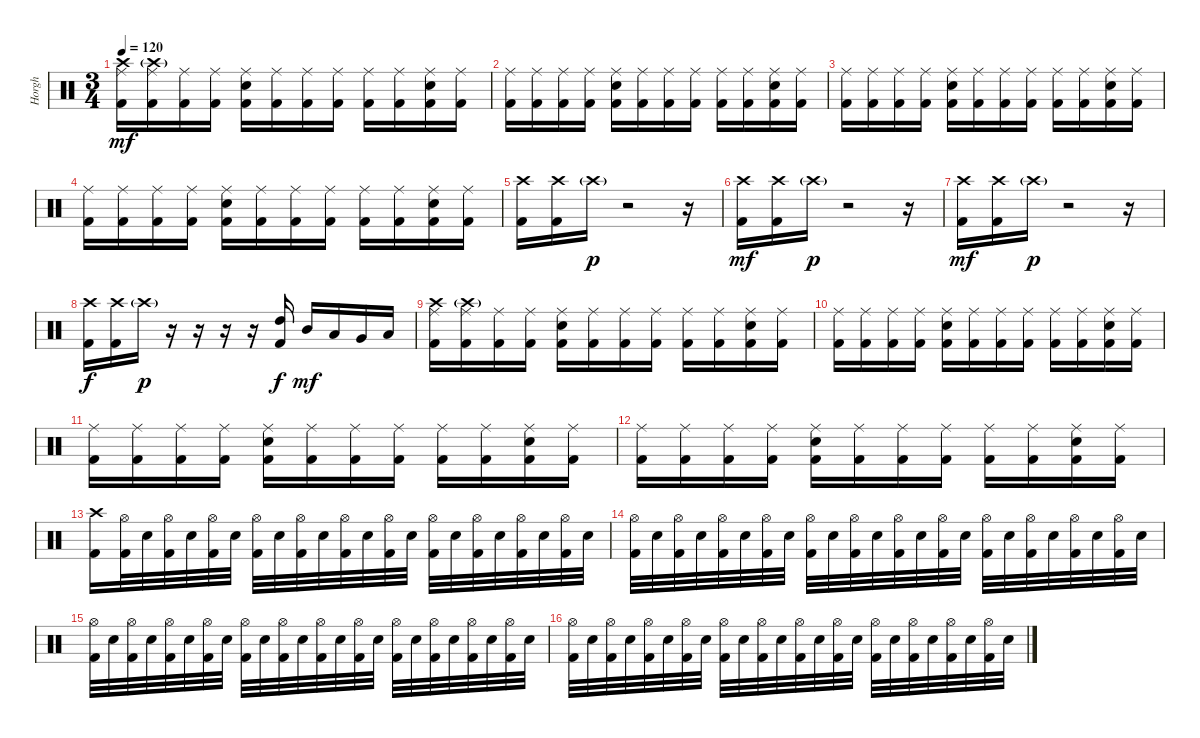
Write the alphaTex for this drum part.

\track ("Horgh" "Horgh") {instrument percussion}
\staff {score}
\articulation defaults
\ts (3 4)
\tempo 120
\clef neutral
\ks c
("Crash high (hit)" "Ride (middle)" "Kick (hit) 2").16{dy mf} ("Crash high (hit)"{g} "Ride (middle)" "Kick (hit) 2").16 ("Ride (middle)" "Kick (hit) 2").16 ("Ride (middle)" "Kick (hit) 2").16 ("Snare (hit) 2" "Ride (middle)" "Kick (hit) 2").16 ("Ride (middle)" "Kick (hit) 2").16 ("Ride (middle)" "Kick (hit) 2").16 ("Ride (middle)" "Kick (hit) 2").16 ("Ride (middle)" "Kick (hit) 2").16 ("Ride (middle)" "Kick (hit) 2").16 ("Snare (hit) 2" "Ride (middle)" "Kick (hit) 2").16 ("Ride (middle)" "Kick (hit) 2").16 |
("Ride (middle)" "Kick (hit) 2").16 ("Ride (middle)" "Kick (hit) 2").16 ("Ride (middle)" "Kick (hit) 2").16 ("Ride (middle)" "Kick (hit) 2").16 ("Snare (hit) 2" "Ride (middle)" "Kick (hit) 2").16 ("Ride (middle)" "Kick (hit) 2").16 ("Ride (middle)" "Kick (hit) 2").16 ("Ride (middle)" "Kick (hit) 2").16 ("Ride (middle)" "Kick (hit) 2").16 ("Ride (middle)" "Kick (hit) 2").16 ("Snare (hit) 2" "Ride (middle)" "Kick (hit) 2").16 ("Ride (middle)" "Kick (hit) 2").16 |
("Ride (middle)" "Kick (hit) 2").16 ("Ride (middle)" "Kick (hit) 2").16 ("Ride (middle)" "Kick (hit) 2").16 ("Ride (middle)" "Kick (hit) 2").16 ("Snare (hit) 2" "Ride (middle)" "Kick (hit) 2").16 ("Ride (middle)" "Kick (hit) 2").16 ("Ride (middle)" "Kick (hit) 2").16 ("Ride (middle)" "Kick (hit) 2").16 ("Ride (middle)" "Kick (hit) 2").16 ("Ride (middle)" "Kick (hit) 2").16 ("Snare (hit) 2" "Ride (middle)" "Kick (hit) 2").16 ("Ride (middle)" "Kick (hit) 2").16 |
("Ride (middle)" "Kick (hit) 2").16 ("Ride (middle)" "Kick (hit) 2").16 ("Ride (middle)" "Kick (hit) 2").16 ("Ride (middle)" "Kick (hit) 2").16 ("Snare (hit) 2" "Ride (middle)" "Kick (hit) 2").16 ("Ride (middle)" "Kick (hit) 2").16 ("Ride (middle)" "Kick (hit) 2").16 ("Ride (middle)" "Kick (hit) 2").16 ("Ride (middle)" "Kick (hit) 2").16 ("Ride (middle)" "Kick (hit) 2").16 ("Snare (hit) 2" "Ride (middle)" "Kick (hit) 2").16 ("Ride (middle)" "Kick (hit) 2").16 |
("Crash high (hit)" "Kick (hit) 2").16 ("Crash high (hit)" "Kick (hit) 2").16 "Crash high (hit)"{g}.16{dy p} r.2 r.16 |
("Crash high (hit)" "Kick (hit) 2").16{dy mf} ("Crash high (hit)" "Kick (hit) 2").16 "Crash high (hit)"{g}.16{dy p} r.2 r.16 |
("Crash high (hit)" "Kick (hit) 2").16{dy mf} ("Crash high (hit)" "Kick (hit) 2").16 "Crash high (hit)"{g}.16{dy p} r.2 r.16 |
("Crash high (hit)" "Kick (hit) 2").16{dy f} ("Crash high (hit)" "Kick (hit) 2").16 "Crash high (hit)"{g}.16{dy p} r.16 r.16 r.16 r.16 ("High Tom (hit)" "Kick (hit) 2").16{dy f} "Mid Tom (hit)".16{dy mf} "Low Tom (hit)".16 "Very Low Tom (hit)".16 "Low Floor Tom (hit)".16 |
("Crash high (hit)" "Ride (middle)" "Kick (hit) 2").16 ("Crash high (hit)"{g} "Ride (middle)" "Kick (hit) 2").16 ("Ride (middle)" "Kick (hit) 2").16 ("Ride (middle)" "Kick (hit) 2").16 ("Snare (hit) 2" "Ride (middle)" "Kick (hit) 2").16 ("Ride (middle)" "Kick (hit) 2").16 ("Ride (middle)" "Kick (hit) 2").16 ("Ride (middle)" "Kick (hit) 2").16 ("Ride (middle)" "Kick (hit) 2").16 ("Ride (middle)" "Kick (hit) 2").16 ("Snare (hit) 2" "Ride (middle)" "Kick (hit) 2").16 ("Ride (middle)" "Kick (hit) 2").16 |
("Ride (middle)" "Kick (hit) 2").16 ("Ride (middle)" "Kick (hit) 2").16 ("Ride (middle)" "Kick (hit) 2").16 ("Ride (middle)" "Kick (hit) 2").16 ("Snare (hit) 2" "Ride (middle)" "Kick (hit) 2").16 ("Ride (middle)" "Kick (hit) 2").16 ("Ride (middle)" "Kick (hit) 2").16 ("Ride (middle)" "Kick (hit) 2").16 ("Ride (middle)" "Kick (hit) 2").16 ("Ride (middle)" "Kick (hit) 2").16 ("Snare (hit) 2" "Ride (middle)" "Kick (hit) 2").16 ("Ride (middle)" "Kick (hit) 2").16 |
("Ride (middle)" "Kick (hit) 2").16 ("Ride (middle)" "Kick (hit) 2").16 ("Ride (middle)" "Kick (hit) 2").16 ("Ride (middle)" "Kick (hit) 2").16 ("Snare (hit) 2" "Ride (middle)" "Kick (hit) 2").16 ("Ride (middle)" "Kick (hit) 2").16 ("Ride (middle)" "Kick (hit) 2").16 ("Ride (middle)" "Kick (hit) 2").16 ("Ride (middle)" "Kick (hit) 2").16 ("Ride (middle)" "Kick (hit) 2").16 ("Snare (hit) 2" "Ride (middle)" "Kick (hit) 2").16 ("Ride (middle)" "Kick (hit) 2").16 |
("Ride (middle)" "Kick (hit) 2").16 ("Ride (middle)" "Kick (hit) 2").16 ("Ride (middle)" "Kick (hit) 2").16 ("Ride (middle)" "Kick (hit) 2").16 ("Snare (hit) 2" "Ride (middle)" "Kick (hit) 2").16 ("Ride (middle)" "Kick (hit) 2").16 ("Ride (middle)" "Kick (hit) 2").16 ("Ride (middle)" "Kick (hit) 2").16 ("Ride (middle)" "Kick (hit) 2").16 ("Ride (middle)" "Kick (hit) 2").16 ("Snare (hit) 2" "Ride (middle)" "Kick (hit) 2").16 ("Ride (middle)" "Kick (hit) 2").16 |
("Crash high (hit)" "Kick (hit) 2").16 ("Hi-Hat (open)" "Kick (hit) 2").32 "Snare (hit) 2".32 ("Hi-Hat (open)" "Kick (hit) 2").32 "Snare (hit) 2".32 ("Hi-Hat (open)" "Kick (hit) 2").32 "Snare (hit) 2".32 ("Hi-Hat (open)" "Kick (hit) 2").32 "Snare (hit) 2".32 ("Hi-Hat (open)" "Kick (hit) 2").32 "Snare (hit) 2".32 ("Hi-Hat (open)" "Kick (hit) 2").32 "Snare (hit) 2".32 ("Hi-Hat (open)" "Kick (hit) 2").32 "Snare (hit) 2".32 ("Hi-Hat (open)" "Kick (hit) 2").32 "Snare (hit) 2".32 ("Hi-Hat (open)" "Kick (hit) 2").32 "Snare (hit) 2".32 ("Hi-Hat (open)" "Kick (hit) 2").32 "Snare (hit) 2".32 ("Hi-Hat (open)" "Kick (hit) 2").32 "Snare (hit) 2".32 |
("Hi-Hat (open)" "Kick (hit) 2").32 "Snare (hit) 2".32 ("Hi-Hat (open)" "Kick (hit) 2").32 "Snare (hit) 2".32 ("Hi-Hat (open)" "Kick (hit) 2").32 "Snare (hit) 2".32 ("Hi-Hat (open)" "Kick (hit) 2").32 "Snare (hit) 2".32 ("Hi-Hat (open)" "Kick (hit) 2").32 "Snare (hit) 2".32 ("Hi-Hat (open)" "Kick (hit) 2").32 "Snare (hit) 2".32 ("Hi-Hat (open)" "Kick (hit) 2").32 "Snare (hit) 2".32 ("Hi-Hat (open)" "Kick (hit) 2").32 "Snare (hit) 2".32 ("Hi-Hat (open)" "Kick (hit) 2").32 "Snare (hit) 2".32 ("Hi-Hat (open)" "Kick (hit) 2").32 "Snare (hit) 2".32 ("Hi-Hat (open)" "Kick (hit) 2").32 "Snare (hit) 2".32 ("Hi-Hat (open)" "Kick (hit) 2").32 "Snare (hit) 2".32 |
("Hi-Hat (open)" "Kick (hit) 2").32 "Snare (hit) 2".32 ("Hi-Hat (open)" "Kick (hit) 2").32 "Snare (hit) 2".32 ("Hi-Hat (open)" "Kick (hit) 2").32 "Snare (hit) 2".32 ("Hi-Hat (open)" "Kick (hit) 2").32 "Snare (hit) 2".32 ("Hi-Hat (open)" "Kick (hit) 2").32 "Snare (hit) 2".32 ("Hi-Hat (open)" "Kick (hit) 2").32 "Snare (hit) 2".32 ("Hi-Hat (open)" "Kick (hit) 2").32 "Snare (hit) 2".32 ("Hi-Hat (open)" "Kick (hit) 2").32 "Snare (hit) 2".32 ("Hi-Hat (open)" "Kick (hit) 2").32 "Snare (hit) 2".32 ("Hi-Hat (open)" "Kick (hit) 2").32 "Snare (hit) 2".32 ("Hi-Hat (open)" "Kick (hit) 2").32 "Snare (hit) 2".32 ("Hi-Hat (open)" "Kick (hit) 2").32 "Snare (hit) 2".32 |
("Hi-Hat (open)" "Kick (hit) 2").32 "Snare (hit) 2".32 ("Hi-Hat (open)" "Kick (hit) 2").32 "Snare (hit) 2".32 ("Hi-Hat (open)" "Kick (hit) 2").32 "Snare (hit) 2".32 ("Hi-Hat (open)" "Kick (hit) 2").32 "Snare (hit) 2".32 ("Hi-Hat (open)" "Kick (hit) 2").32 "Snare (hit) 2".32 ("Hi-Hat (open)" "Kick (hit) 2").32 "Snare (hit) 2".32 ("Hi-Hat (open)" "Kick (hit) 2").32 "Snare (hit) 2".32 ("Hi-Hat (open)" "Kick (hit) 2").32 "Snare (hit) 2".32 ("Hi-Hat (open)" "Kick (hit) 2").32 "Snare (hit) 2".32 ("Hi-Hat (open)" "Kick (hit) 2").32 "Snare (hit) 2".32 ("Hi-Hat (open)" "Kick (hit) 2").32 "Snare (hit) 2".32 ("Hi-Hat (open)" "Kick (hit) 2").32 "Snare (hit) 2".32
